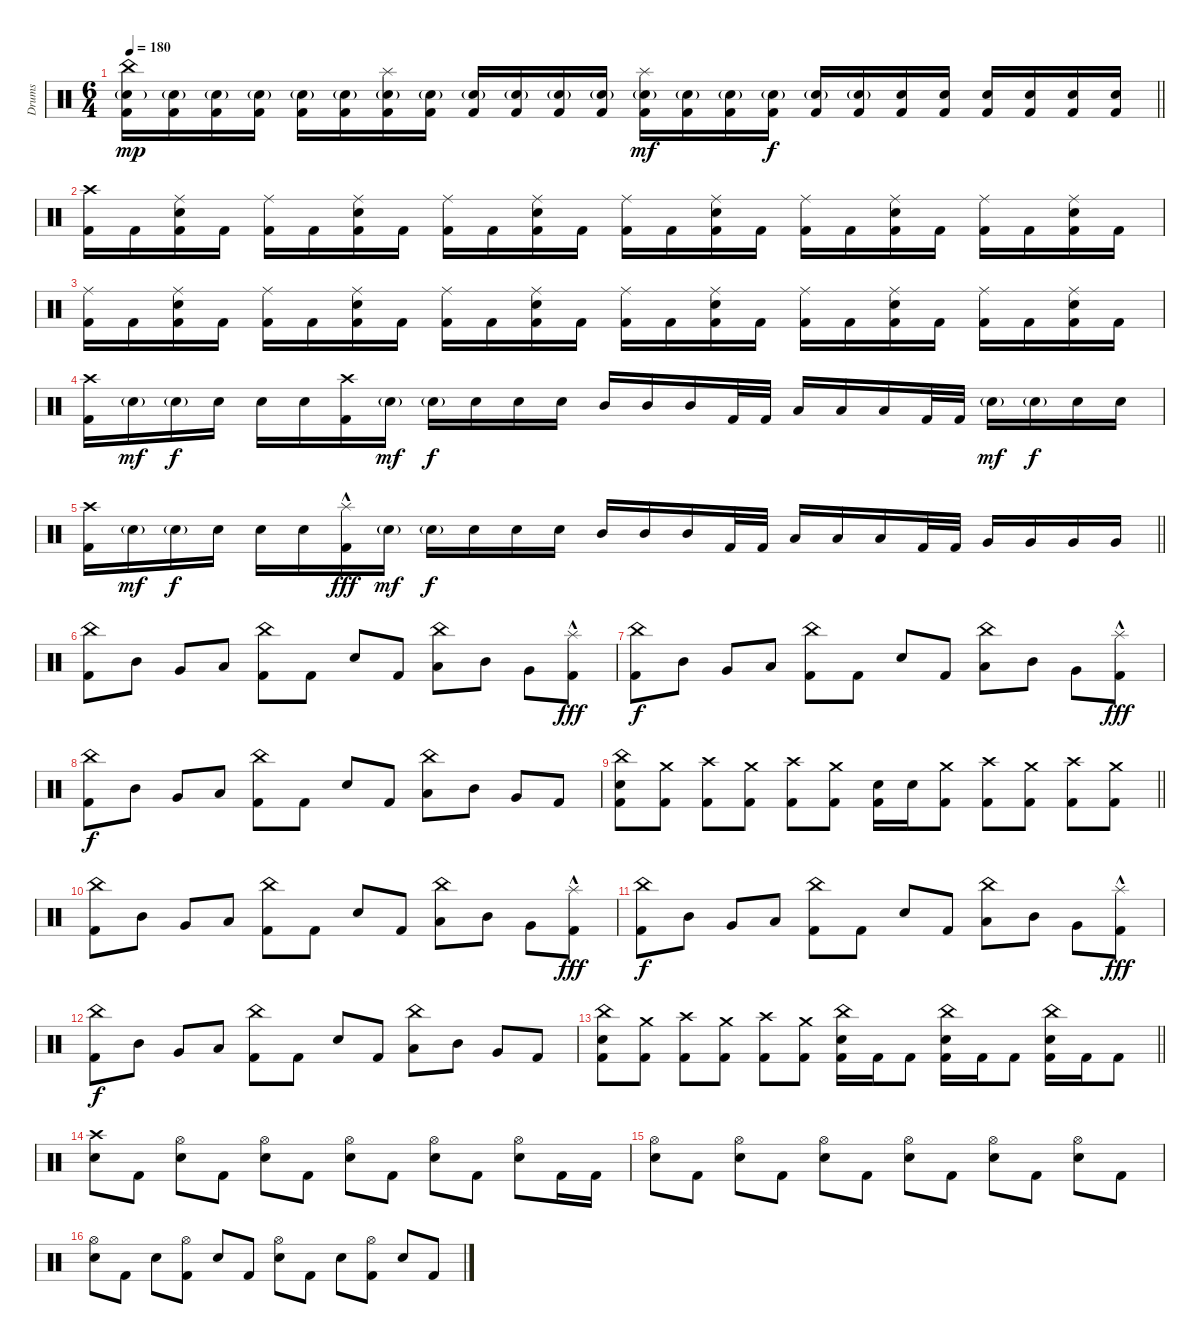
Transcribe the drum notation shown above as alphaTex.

\track ("Drums" "Drums") {instrument percussion}
\staff {score}
\articulation defaults
\ts (6 4)
\tempo 180
\clef neutral
\barLineRight lightlight
\ks c
("China (hit)" "Electric Snare (hit)"{g} "Kick (hit) 2").16{dy mp} ("Electric Snare (hit)"{g} "Kick (hit) 2").16 ("Electric Snare (hit)"{g} "Kick (hit) 2").16 ("Electric Snare (hit)"{g} "Kick (hit) 2").16 ("Electric Snare (hit)"{g} "Kick (hit) 2").16 ("Electric Snare (hit)"{g} "Kick (hit) 2").16 ("Splash (hit)" "Electric Snare (hit)"{g} "Kick (hit) 2").16 ("Electric Snare (hit)"{g} "Kick (hit) 2").16 ("Electric Snare (hit)"{g} "Kick (hit) 2").16 ("Electric Snare (hit)"{g} "Kick (hit) 2").16 ("Electric Snare (hit)"{g} "Kick (hit) 2").16 ("Electric Snare (hit)"{g} "Kick (hit) 2").16 ("Splash (hit)" "Electric Snare (hit)"{g} "Kick (hit) 2").16{dy mf} ("Electric Snare (hit)"{g} "Kick (hit) 2").16 ("Electric Snare (hit)"{g} "Kick (hit) 2").16 ("Electric Snare (hit)"{g} "Kick (hit) 2").16{dy f} ("Electric Snare (hit)"{g} "Kick (hit) 2").16 ("Electric Snare (hit)"{g} "Kick (hit) 2").16 ("Electric Snare (hit)" "Kick (hit) 2").16 ("Electric Snare (hit)" "Kick (hit) 2").16 ("Electric Snare (hit)" "Kick (hit) 2").16 ("Electric Snare (hit)" "Kick (hit) 2").16 ("Electric Snare (hit)" "Kick (hit) 2").16 ("Electric Snare (hit)" "Kick (hit) 2").16 |
("Crash high (hit)" "Kick (hit) 2").16 "Kick (hit) 2".16 ("Ride (middle)" "Electric Snare (hit)" "Kick (hit) 2").16 "Kick (hit) 2".16 ("Ride (middle)" "Kick (hit) 2").16 "Kick (hit) 2".16 ("Ride (middle)" "Electric Snare (hit)" "Kick (hit) 2").16 "Kick (hit) 2".16 ("Ride (middle)" "Kick (hit) 2").16 "Kick (hit) 2".16 ("Ride (middle)" "Electric Snare (hit)" "Kick (hit) 2").16 "Kick (hit) 2".16 ("Ride (middle)" "Kick (hit) 2").16 "Kick (hit) 2".16 ("Ride (middle)" "Electric Snare (hit)" "Kick (hit) 2").16 "Kick (hit) 2".16 ("Ride (middle)" "Kick (hit) 2").16 "Kick (hit) 2".16 ("Ride (middle)" "Electric Snare (hit)" "Kick (hit) 2").16 "Kick (hit) 2".16 ("Ride (middle)" "Kick (hit) 2").16 "Kick (hit) 2".16 ("Ride (middle)" "Electric Snare (hit)" "Kick (hit) 2").16 "Kick (hit) 2".16 |
("Ride (middle)" "Kick (hit) 2").16 "Kick (hit) 2".16 ("Ride (middle)" "Electric Snare (hit)" "Kick (hit) 2").16 "Kick (hit) 2".16 ("Ride (middle)" "Kick (hit) 2").16 "Kick (hit) 2".16 ("Ride (middle)" "Electric Snare (hit)" "Kick (hit) 2").16 "Kick (hit) 2".16 ("Ride (middle)" "Kick (hit) 2").16 "Kick (hit) 2".16 ("Ride (middle)" "Electric Snare (hit)" "Kick (hit) 2").16 "Kick (hit) 2".16 ("Ride (middle)" "Kick (hit) 2").16 "Kick (hit) 2".16 ("Ride (middle)" "Electric Snare (hit)" "Kick (hit) 2").16 "Kick (hit) 2".16 ("Ride (middle)" "Kick (hit) 2").16 "Kick (hit) 2".16 ("Ride (middle)" "Electric Snare (hit)" "Kick (hit) 2").16 "Kick (hit) 2".16 ("Ride (middle)" "Kick (hit) 2").16 "Kick (hit) 2".16 ("Ride (middle)" "Electric Snare (hit)" "Kick (hit) 2").16 "Kick (hit) 2".16 |
("Crash high (hit)" "Kick (hit) 2").16 "Electric Snare (hit)"{g}.16{dy mf} "Electric Snare (hit)"{g}.16{dy f} "Electric Snare (hit)".16 "Electric Snare (hit)".16 "Electric Snare (hit)".16 ("Crash high (hit)" "Kick (hit) 2").16 "Electric Snare (hit)"{g}.16{dy mf} "Electric Snare (hit)"{g}.16{dy f} "Electric Snare (hit)".16 "Electric Snare (hit)".16 "Electric Snare (hit)".16 "Mid Tom (hit)".16 "Mid Tom (hit)".16 "Mid Tom (hit)".16 "Kick (hit) 2".32 "Kick (hit) 2".32 "Low Tom (hit)".16 "Low Tom (hit)".16 "Low Tom (hit)".16 "Kick (hit) 2".32 "Kick (hit) 2".32 "Electric Snare (hit)"{g}.16{dy mf} "Electric Snare (hit)"{g}.16{dy f} "Electric Snare (hit)".16 "Electric Snare (hit)".16 |
\barLineRight lightlight
("Crash high (hit)" "Kick (hit) 2").16 "Electric Snare (hit)"{g}.16{dy mf} "Electric Snare (hit)"{g}.16{dy f} "Electric Snare (hit)".16 "Electric Snare (hit)".16 "Electric Snare (hit)".16 ("Splash (hit)"{hac} "Kick (hit) 2").16{dy fff} "Electric Snare (hit)"{g}.16{dy mf} "Electric Snare (hit)"{g}.16{dy f} "Electric Snare (hit)".16 "Electric Snare (hit)".16 "Electric Snare (hit)".16 "Mid Tom (hit)".16 "Mid Tom (hit)".16 "Mid Tom (hit)".16 "Kick (hit) 2".32 "Kick (hit) 2".32 "Low Tom (hit)".16 "Low Tom (hit)".16 "Low Tom (hit)".16 "Kick (hit) 2".32 "Kick (hit) 2".32 "Very Low Tom (hit)".16 "Very Low Tom (hit)".16 "Very Low Tom (hit)".16 "Very Low Tom (hit)".16 |
("China (hit)" "Kick (hit) 2").8 "Mid Tom (hit)".8 "Very Low Tom (hit)".8 "Low Tom (hit)".8 ("China (hit)" "Kick (hit) 2").8 "Kick (hit) 2".8 "Electric Snare (hit)".8 "Kick (hit) 2".8 ("China (hit)" "Low Tom (hit)").8 "Mid Tom (hit)".8 "Very Low Tom (hit)".8 ("Splash (hit)"{hac} "Kick (hit) 2").8{dy fff} |
("China (hit)" "Kick (hit) 2").8{dy f} "Mid Tom (hit)".8 "Very Low Tom (hit)".8 "Low Tom (hit)".8 ("China (hit)" "Kick (hit) 2").8 "Kick (hit) 2".8 "Electric Snare (hit)".8 "Kick (hit) 2".8 ("China (hit)" "Low Tom (hit)").8 "Mid Tom (hit)".8 "Very Low Tom (hit)".8 ("Splash (hit)"{hac} "Kick (hit) 2").8{dy fff} |
("China (hit)" "Kick (hit) 2").8{dy f} "Mid Tom (hit)".8 "Very Low Tom (hit)".8 "Low Tom (hit)".8 ("China (hit)" "Kick (hit) 2").8 "Kick (hit) 2".8 "Electric Snare (hit)".8 "Kick (hit) 2".8 ("China (hit)" "Low Tom (hit)").8 "Mid Tom (hit)".8 "Very Low Tom (hit)".8 "Kick (hit) 2".8 |
\barLineRight lightlight
("China (hit)" "Electric Snare (hit)" "Kick (hit) 2").8 ("Crash medium (hit)" "Kick (hit) 2").8 ("Crash high (hit)" "Kick (hit) 2").8 ("Crash medium (hit)" "Kick (hit) 2").8 ("Crash high (hit)" "Kick (hit) 2").8 ("Crash medium (hit)" "Kick (hit) 2").8 ("Electric Snare (hit)" "Kick (hit) 2").16 "Electric Snare (hit)".16 ("Crash medium (hit)" "Kick (hit) 2").8 ("Crash high (hit)" "Kick (hit) 2").8 ("Crash medium (hit)" "Kick (hit) 2").8 ("Crash high (hit)" "Kick (hit) 2").8 ("Crash medium (hit)" "Kick (hit) 2").8 |
("China (hit)" "Kick (hit) 2").8 "Mid Tom (hit)".8 "Very Low Tom (hit)".8 "Low Tom (hit)".8 ("China (hit)" "Kick (hit) 2").8 "Kick (hit) 2".8 "Electric Snare (hit)".8 "Kick (hit) 2".8 ("China (hit)" "Low Tom (hit)").8 "Mid Tom (hit)".8 "Very Low Tom (hit)".8 ("Splash (hit)"{hac} "Kick (hit) 2").8{dy fff} |
("China (hit)" "Kick (hit) 2").8{dy f} "Mid Tom (hit)".8 "Very Low Tom (hit)".8 "Low Tom (hit)".8 ("China (hit)" "Kick (hit) 2").8 "Kick (hit) 2".8 "Electric Snare (hit)".8 "Kick (hit) 2".8 ("China (hit)" "Low Tom (hit)").8 "Mid Tom (hit)".8 "Very Low Tom (hit)".8 ("Splash (hit)"{hac} "Kick (hit) 2").8{dy fff} |
("China (hit)" "Kick (hit) 2").8{dy f} "Mid Tom (hit)".8 "Very Low Tom (hit)".8 "Low Tom (hit)".8 ("China (hit)" "Kick (hit) 2").8 "Kick (hit) 2".8 "Electric Snare (hit)".8 "Kick (hit) 2".8 ("China (hit)" "Low Tom (hit)").8 "Mid Tom (hit)".8 "Very Low Tom (hit)".8 "Kick (hit) 2".8 |
\barLineRight lightlight
("China (hit)" "Electric Snare (hit)" "Kick (hit) 2").8 ("Crash medium (hit)" "Kick (hit) 2").8 ("Crash high (hit)" "Kick (hit) 2").8 ("Crash medium (hit)" "Kick (hit) 2").8 ("Crash high (hit)" "Kick (hit) 2").8 ("Crash medium (hit)" "Kick (hit) 2").8 ("China (hit)" "Electric Snare (hit)" "Kick (hit) 2").16 "Kick (hit) 2".16 "Kick (hit) 2".8 ("China (hit)" "Electric Snare (hit)" "Kick (hit) 2").16 "Kick (hit) 2".16 "Kick (hit) 2".8 ("China (hit)" "Electric Snare (hit)" "Kick (hit) 2").16 "Kick (hit) 2".16 "Kick (hit) 2".8 |
("Crash high (hit)" "Electric Snare (hit)").8 "Kick (hit) 2".8 ("Hi-Hat (open)" "Electric Snare (hit)").8 "Kick (hit) 2".8 ("Hi-Hat (open)" "Electric Snare (hit)").8 "Kick (hit) 2".8 ("Hi-Hat (open)" "Electric Snare (hit)").8 "Kick (hit) 2".8 ("Hi-Hat (open)" "Electric Snare (hit)").8 "Kick (hit) 2".8 ("Hi-Hat (open)" "Electric Snare (hit)").8 "Kick (hit) 2".16 "Kick (hit) 2".16 |
("Hi-Hat (open)" "Electric Snare (hit)").8 "Kick (hit) 2".8 ("Hi-Hat (open)" "Electric Snare (hit)").8 "Kick (hit) 2".8 ("Hi-Hat (open)" "Electric Snare (hit)").8 "Kick (hit) 2".8 ("Hi-Hat (open)" "Electric Snare (hit)").8 "Kick (hit) 2".8 ("Hi-Hat (open)" "Electric Snare (hit)").8 "Kick (hit) 2".8 ("Hi-Hat (open)" "Electric Snare (hit)").8 "Kick (hit) 2".8 |
("Hi-Hat (open)" "Electric Snare (hit)").8 "Kick (hit) 2".8 "Electric Snare (hit)".8 ("Hi-Hat (open)" "Kick (hit) 2").8 "Electric Snare (hit)".8 "Kick (hit) 2".8 ("Hi-Hat (open)" "Electric Snare (hit)").8 "Kick (hit) 2".8 "Electric Snare (hit)".8 ("Hi-Hat (open)" "Kick (hit) 2").8 "Electric Snare (hit)".8 "Kick (hit) 2".8
